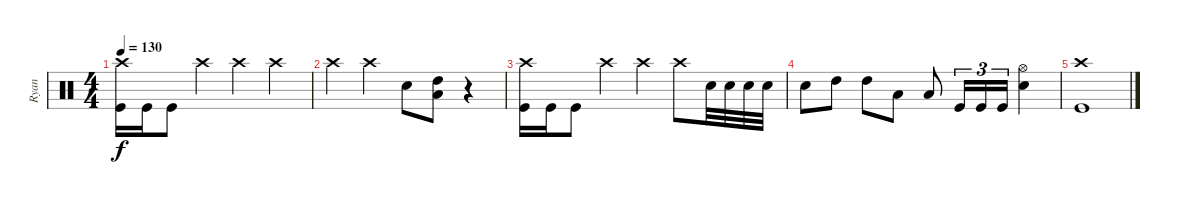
\track ("Ryan" "Ryan") {instrument percussion}
\staff {score}
\articulation defaults
\ts (4 4)
\tempo 130
\clef neutral
\ks c
("Crash high (hit)" "Kick (hit)").16{dy f} "Kick (hit)".16 "Kick (hit)".8 "Crash high (hit)".4 "Crash high (hit)".4 "Crash high (hit)".4 |
"Crash high (hit)".4 "Crash high (hit)".4 "Electric Snare (hit)".8 ("High Tom (hit)" "Low Floor Tom (hit)").8 r.4 |
("Crash high (hit)" "Kick (hit)").16 "Kick (hit)".16 "Kick (hit)".8 "Crash high (hit)".4 "Crash high (hit)".4 "Crash high (hit)".8 "Electric Snare (hit)".32 "Electric Snare (hit)".32 "Electric Snare (hit)".32 "Electric Snare (hit)".32 |
"Electric Snare (hit)".8 "High Tom (hit)".8 "High Tom (hit)".8 "Low Floor Tom (hit)".8 "Low Floor Tom (hit)".8 "Kick (hit)".16{tu (3 2)} "Kick (hit)".16{tu (3 2)} "Kick (hit)".16{tu (3 2)} ("Hi-Hat (open)" "Electric Snare (hit)").4 |
("Crash high (hit)" "Kick (hit)").1
